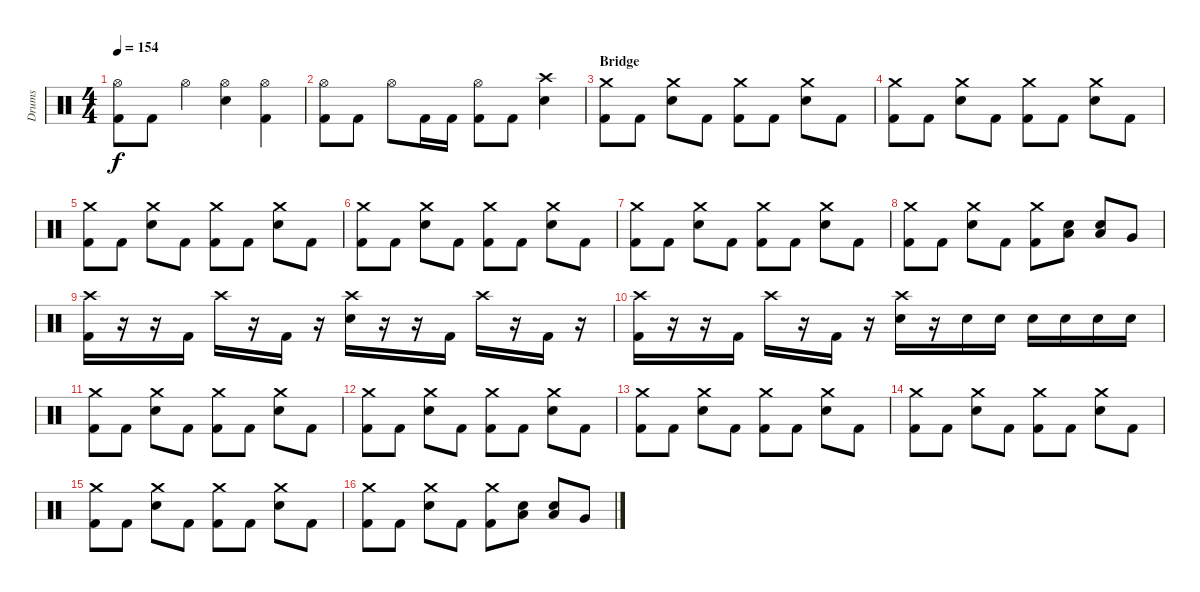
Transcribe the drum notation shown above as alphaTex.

\track ("Drums" "Drums") {instrument percussion}
\staff {score}
\articulation defaults
\ts (4 4)
\tempo 154
\clef neutral
\ks c
("Hi-Hat (open)" "Kick (hit) 2").8{dy f} "Kick (hit) 2".8 "Hi-Hat (open)".4 ("Hi-Hat (open)" "Electric Snare (hit)").4 ("Hi-Hat (open)" "Kick (hit) 2").4 |
("Hi-Hat (open)" "Kick (hit) 2").8 "Kick (hit) 2".8 "Hi-Hat (open)".8 "Kick (hit) 2".16 "Kick (hit) 2".16 ("Hi-Hat (open)" "Kick (hit) 2").8 "Kick (hit) 2".8 ("Crash high (hit)" "Electric Snare (hit)").4 |
\section ("" "Bridge")
("Crash medium (hit)" "Kick (hit) 2").8 "Kick (hit) 2".8 ("Crash medium (hit)" "Electric Snare (hit)").8 "Kick (hit) 2".8 ("Crash medium (hit)" "Kick (hit) 2").8 "Kick (hit) 2".8 ("Crash medium (hit)" "Electric Snare (hit)").8 "Kick (hit) 2".8 |
("Crash medium (hit)" "Kick (hit) 2").8 "Kick (hit) 2".8 ("Crash medium (hit)" "Electric Snare (hit)").8 "Kick (hit) 2".8 ("Crash medium (hit)" "Kick (hit) 2").8 "Kick (hit) 2".8 ("Crash medium (hit)" "Electric Snare (hit)").8 "Kick (hit) 2".8 |
("Crash medium (hit)" "Kick (hit) 2").8 "Kick (hit) 2".8 ("Crash medium (hit)" "Electric Snare (hit)").8 "Kick (hit) 2".8 ("Crash medium (hit)" "Kick (hit) 2").8 "Kick (hit) 2".8 ("Crash medium (hit)" "Electric Snare (hit)").8 "Kick (hit) 2".8 |
("Crash medium (hit)" "Kick (hit) 2").8 "Kick (hit) 2".8 ("Crash medium (hit)" "Electric Snare (hit)").8 "Kick (hit) 2".8 ("Crash medium (hit)" "Kick (hit) 2").8 "Kick (hit) 2".8 ("Crash medium (hit)" "Electric Snare (hit)").8 "Kick (hit) 2".8 |
("Crash medium (hit)" "Kick (hit) 2").8 "Kick (hit) 2".8 ("Crash medium (hit)" "Electric Snare (hit)").8 "Kick (hit) 2".8 ("Crash medium (hit)" "Kick (hit) 2").8 "Kick (hit) 2".8 ("Crash medium (hit)" "Electric Snare (hit)").8 "Kick (hit) 2".8 |
("Crash medium (hit)" "Kick (hit) 2").8 "Kick (hit) 2".8 ("Crash medium (hit)" "Electric Snare (hit)").8 "Kick (hit) 2".8 ("Crash medium (hit)" "Kick (hit) 2").8 ("Electric Snare (hit)" "Low Tom (hit)").8 ("Electric Snare (hit)" "Low Tom (hit)").8 "Very Low Tom (hit)".8 |
("Crash high (hit)" "Kick (hit) 2").16 r.16 r.16 "Kick (hit) 2".16 "Crash high (hit)".16 r.16 "Kick (hit) 2".16 r.16 ("Crash high (hit)" "Electric Snare (hit)").16 r.16 r.16 "Kick (hit) 2".16 "Crash high (hit)".16 r.16 "Kick (hit) 2".16 r.16 |
("Crash high (hit)" "Kick (hit) 2").16 r.16 r.16 "Kick (hit) 2".16 "Crash high (hit)".16 r.16 "Kick (hit) 2".16 r.16 ("Crash high (hit)" "Electric Snare (hit)").16 r.16 "Electric Snare (hit)".16 "Electric Snare (hit)".16 "Electric Snare (hit)".16 "Electric Snare (hit)".16 "Electric Snare (hit)".16 "Electric Snare (hit)".16 |
("Crash medium (hit)" "Kick (hit) 2").8 "Kick (hit) 2".8 ("Crash medium (hit)" "Electric Snare (hit)").8 "Kick (hit) 2".8 ("Crash medium (hit)" "Kick (hit) 2").8 "Kick (hit) 2".8 ("Crash medium (hit)" "Electric Snare (hit)").8 "Kick (hit) 2".8 |
("Crash medium (hit)" "Kick (hit) 2").8 "Kick (hit) 2".8 ("Crash medium (hit)" "Electric Snare (hit)").8 "Kick (hit) 2".8 ("Crash medium (hit)" "Kick (hit) 2").8 "Kick (hit) 2".8 ("Crash medium (hit)" "Electric Snare (hit)").8 "Kick (hit) 2".8 |
("Crash medium (hit)" "Kick (hit) 2").8 "Kick (hit) 2".8 ("Crash medium (hit)" "Electric Snare (hit)").8 "Kick (hit) 2".8 ("Crash medium (hit)" "Kick (hit) 2").8 "Kick (hit) 2".8 ("Crash medium (hit)" "Electric Snare (hit)").8 "Kick (hit) 2".8 |
("Crash medium (hit)" "Kick (hit) 2").8 "Kick (hit) 2".8 ("Crash medium (hit)" "Electric Snare (hit)").8 "Kick (hit) 2".8 ("Crash medium (hit)" "Kick (hit) 2").8 "Kick (hit) 2".8 ("Crash medium (hit)" "Electric Snare (hit)").8 "Kick (hit) 2".8 |
("Crash medium (hit)" "Kick (hit) 2").8 "Kick (hit) 2".8 ("Crash medium (hit)" "Electric Snare (hit)").8 "Kick (hit) 2".8 ("Crash medium (hit)" "Kick (hit) 2").8 "Kick (hit) 2".8 ("Crash medium (hit)" "Electric Snare (hit)").8 "Kick (hit) 2".8 |
("Crash medium (hit)" "Kick (hit) 2").8 "Kick (hit) 2".8 ("Crash medium (hit)" "Electric Snare (hit)").8 "Kick (hit) 2".8 ("Crash medium (hit)" "Kick (hit) 2").8 ("Electric Snare (hit)" "Low Tom (hit)").8 ("Electric Snare (hit)" "Low Tom (hit)").8 "Very Low Tom (hit)".8
